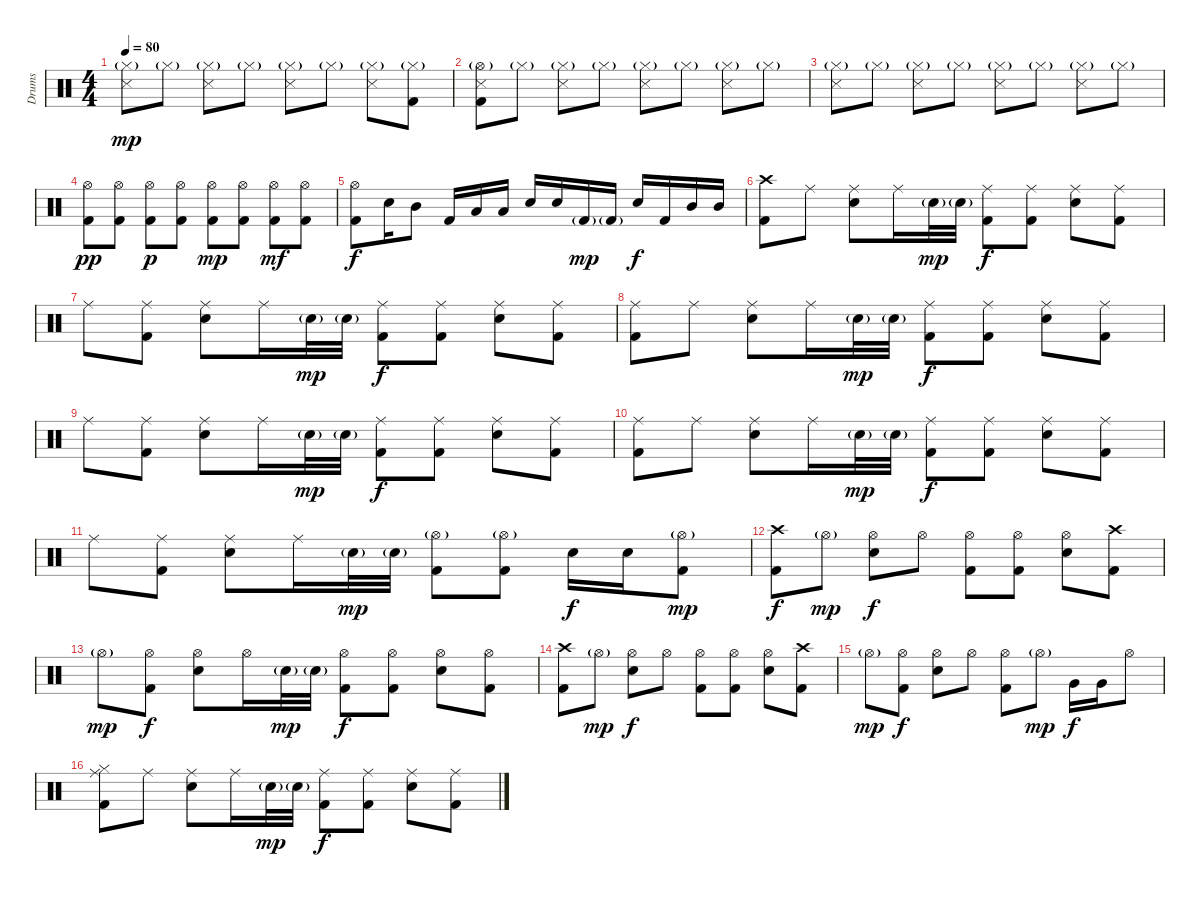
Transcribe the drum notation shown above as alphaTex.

\track ("Drums" "Drums") {instrument percussion}
\staff {score}
\articulation defaults
\ts (4 4)
\tempo 80
\clef neutral
\ks c
("Hi-Hat (closed)"{g} "Snare (side stick) 3").8{dy mp} "Hi-Hat (closed)"{g}.8 ("Hi-Hat (closed)"{g} "Snare (side stick) 3").8 "Hi-Hat (closed)"{g}.8 ("Hi-Hat (closed)"{g} "Snare (side stick) 3").8 "Hi-Hat (closed)"{g}.8 ("Hi-Hat (closed)"{g} "Snare (side stick) 3").8 ("Hi-Hat (closed)"{g} "Kick (hit) 2").8 |
("Hi-Hat (open)"{g} "Snare (side stick) 3" "Kick (hit) 2").8 "Hi-Hat (closed)"{g}.8 ("Hi-Hat (closed)"{g} "Snare (side stick) 3").8 "Hi-Hat (closed)"{g}.8 ("Hi-Hat (closed)"{g} "Snare (side stick) 3").8 "Hi-Hat (closed)"{g}.8 ("Hi-Hat (closed)"{g} "Snare (side stick) 3").8 "Hi-Hat (closed)"{g}.8 |
("Hi-Hat (closed)"{g} "Snare (side stick) 3").8 "Hi-Hat (closed)"{g}.8 ("Hi-Hat (closed)"{g} "Snare (side stick) 3").8 "Hi-Hat (closed)"{g}.8 ("Hi-Hat (closed)"{g} "Snare (side stick) 3").8 "Hi-Hat (closed)"{g}.8 ("Hi-Hat (closed)"{g} "Snare (side stick) 3").8 "Hi-Hat (closed)"{g}.8 |
("Hi-Hat (open)" "Kick (hit) 2").8{dy pp} ("Hi-Hat (open)" "Kick (hit) 2").8 ("Hi-Hat (open)" "Kick (hit) 2").8{dy p} ("Hi-Hat (open)" "Kick (hit) 2").8 ("Hi-Hat (open)" "Kick (hit) 2").8{dy mp} ("Hi-Hat (open)" "Kick (hit) 2").8 ("Hi-Hat (open)" "Kick (hit) 2").8{dy mf} ("Hi-Hat (open)" "Kick (hit) 2").8 |
("Hi-Hat (open)" "Kick (hit) 2").8{dy f} "Snare (hit) 2".16 "Mid Tom (hit)".8 "Kick (hit) 2".16 "Low Tom (hit)".16 "Low Tom (hit)".16 "Snare (hit) 2".16 "Snare (hit) 2".16 "Kick (hit) 2"{g}.16{dy mp} "Kick (hit) 2"{g}.16 "Snare (hit) 2".16{dy f} "Kick (hit) 2".16 "Mid Tom (hit)".16 "Mid Tom (hit)".16 |
("Crash high (hit)" "Kick (hit) 2").8 "Ride (middle)".8 ("Ride (middle)" "Snare (hit) 2").8 "Ride (middle)".16 "Snare (hit) 2"{g}.32{dy mp} "Snare (hit) 2"{g}.32 ("Ride (middle)" "Kick (hit) 2").8{dy f} ("Ride (middle)" "Kick (hit) 2").8 ("Ride (middle)" "Snare (hit) 2").8 ("Ride (middle)" "Kick (hit) 2").8 |
"Ride (middle)".8 ("Ride (middle)" "Kick (hit) 2").8 ("Ride (middle)" "Snare (hit) 2").8 "Ride (middle)".16 "Snare (hit) 2"{g}.32{dy mp} "Snare (hit) 2"{g}.32 ("Ride (middle)" "Kick (hit) 2").8{dy f} ("Ride (middle)" "Kick (hit) 2").8 ("Ride (middle)" "Snare (hit) 2").8 ("Ride (middle)" "Kick (hit) 2").8 |
("Ride (middle)" "Kick (hit) 2").8 "Ride (middle)".8 ("Ride (middle)" "Snare (hit) 2").8 "Ride (middle)".16 "Snare (hit) 2"{g}.32{dy mp} "Snare (hit) 2"{g}.32 ("Ride (middle)" "Kick (hit) 2").8{dy f} ("Ride (middle)" "Kick (hit) 2").8 ("Ride (middle)" "Snare (hit) 2").8 ("Ride (middle)" "Kick (hit) 2").8 |
"Ride (middle)".8 ("Ride (middle)" "Kick (hit) 2").8 ("Ride (middle)" "Snare (hit) 2").8 "Ride (middle)".16 "Snare (hit) 2"{g}.32{dy mp} "Snare (hit) 2"{g}.32 ("Ride (middle)" "Kick (hit) 2").8{dy f} ("Ride (middle)" "Kick (hit) 2").8 ("Ride (middle)" "Snare (hit) 2").8 ("Ride (middle)" "Kick (hit) 2").8 |
("Ride (middle)" "Kick (hit) 2").8 "Ride (middle)".8 ("Ride (middle)" "Snare (hit) 2").8 "Ride (middle)".16 "Snare (hit) 2"{g}.32{dy mp} "Snare (hit) 2"{g}.32 ("Ride (middle)" "Kick (hit) 2").8{dy f} ("Ride (middle)" "Kick (hit) 2").8 ("Ride (middle)" "Snare (hit) 2").8 ("Ride (middle)" "Kick (hit) 2").8 |
"Ride (middle)".8 ("Ride (middle)" "Kick (hit) 2").8 ("Ride (middle)" "Snare (hit) 2").8 "Ride (middle)".16 "Snare (hit) 2"{g}.32{dy mp} "Snare (hit) 2"{g}.32 ("Hi-Hat (open)"{g} "Kick (hit) 2").8 ("Hi-Hat (open)"{g} "Kick (hit) 2").8 "Snare (hit) 2".16{dy f} "Snare (hit) 2".16 ("Hi-Hat (open)"{g} "Kick (hit) 2").8{dy mp} |
("Crash high (hit)" "Kick (hit) 2").8{dy f} "Hi-Hat (open)"{g}.8{dy mp} ("Hi-Hat (open)" "Snare (hit) 2").8{dy f} "Hi-Hat (open)".8 ("Hi-Hat (open)" "Kick (hit) 2").8 ("Hi-Hat (open)" "Kick (hit) 2").8 ("Hi-Hat (open)" "Snare (hit) 2").8 ("Crash high (hit)" "Kick (hit) 2").8 |
"Hi-Hat (open)"{g}.8{dy mp} ("Hi-Hat (open)" "Kick (hit) 2").8{dy f} ("Hi-Hat (open)" "Snare (hit) 2").8 "Hi-Hat (open)".16 "Snare (hit) 2"{g}.32{dy mp} "Snare (hit) 2"{g}.32 ("Hi-Hat (open)" "Kick (hit) 2").8{dy f} ("Hi-Hat (open)" "Kick (hit) 2").8 ("Hi-Hat (open)" "Snare (hit) 2").8 ("Hi-Hat (open)" "Kick (hit) 2").8 |
("Crash high (hit)" "Kick (hit) 2").8 "Hi-Hat (open)"{g}.8{dy mp} ("Hi-Hat (open)" "Snare (hit) 2").8{dy f} "Hi-Hat (open)".8 ("Hi-Hat (open)" "Kick (hit) 2").8 ("Hi-Hat (open)" "Kick (hit) 2").8 ("Hi-Hat (open)" "Snare (hit) 2").8 ("Crash high (hit)" "Kick (hit) 2").8 |
"Hi-Hat (open)"{g}.8{dy mp} ("Hi-Hat (open)" "Kick (hit) 2").8{dy f} ("Hi-Hat (open)" "Snare (hit) 2").8 "Hi-Hat (open)".8 ("Hi-Hat (open)" "Kick (hit) 2").8 "Hi-Hat (open)"{g}.8{dy mp} "Very Low Tom (hit)".16{dy f} "Very Low Tom (hit)".16 "Hi-Hat (open)".8 |
("Ride (middle)" "Hi-Hat (closed)" "Kick (hit) 2").8 "Ride (middle)".8 ("Ride (middle)" "Snare (hit) 2").8 "Ride (middle)".16 "Snare (hit) 2"{g}.32{dy mp} "Snare (hit) 2"{g}.32 ("Ride (middle)" "Kick (hit) 2").8{dy f} ("Ride (middle)" "Kick (hit) 2").8 ("Ride (middle)" "Snare (hit) 2").8 ("Ride (middle)" "Kick (hit) 2").8
